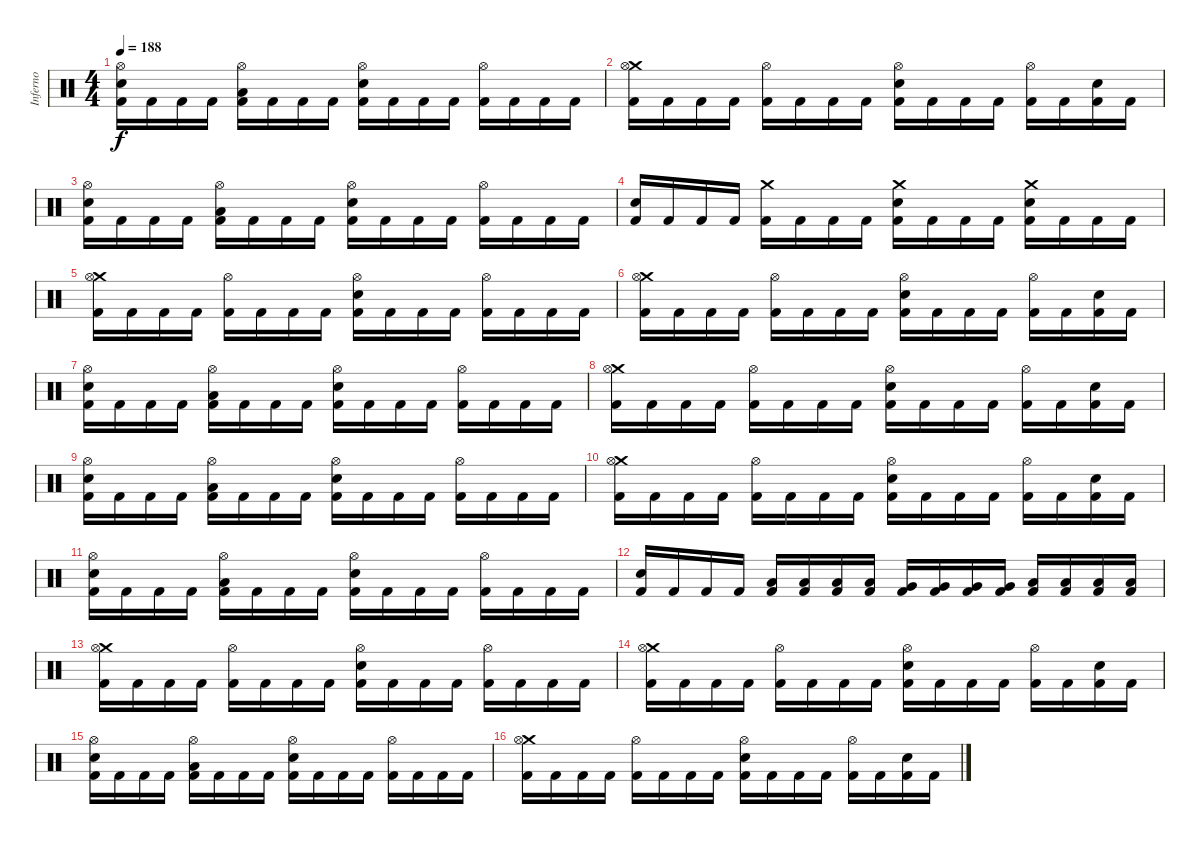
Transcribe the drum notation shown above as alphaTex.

\track ("Inferno" "Inferno") {instrument percussion}
\staff {score}
\articulation defaults
\ts (4 4)
\tempo 188
\clef neutral
\ks c
("Hi-Hat (open)" "Snare (hit) 2" "Kick (hit) 2").16{dy f} "Kick (hit) 2".16 "Kick (hit) 2".16 "Kick (hit) 2".16 ("Hi-Hat (open)" "Low Floor Tom (hit)" "Kick (hit) 2").16 "Kick (hit) 2".16 "Kick (hit) 2".16 "Kick (hit) 2".16 ("Hi-Hat (open)" "Snare (hit) 2" "Kick (hit) 2").16 "Kick (hit) 2".16 "Kick (hit) 2".16 "Kick (hit) 2".16 ("Hi-Hat (open)" "Kick (hit) 2").16 "Kick (hit) 2".16 "Kick (hit) 2".16 "Kick (hit) 2".16 |
("Crash medium (hit)" "Hi-Hat (open)" "Kick (hit) 2").16 "Kick (hit) 2".16 "Kick (hit) 2".16 "Kick (hit) 2".16 ("Hi-Hat (open)" "Kick (hit) 2").16 "Kick (hit) 2".16 "Kick (hit) 2".16 "Kick (hit) 2".16 ("Hi-Hat (open)" "Snare (hit) 2" "Kick (hit) 2").16 "Kick (hit) 2".16 "Kick (hit) 2".16 "Kick (hit) 2".16 ("Hi-Hat (open)" "Kick (hit) 2").16 "Kick (hit) 2".16 ("Snare (hit) 2" "Kick (hit) 2").16 "Kick (hit) 2".16 |
("Hi-Hat (open)" "Snare (hit) 2" "Kick (hit) 2").16 "Kick (hit) 2".16 "Kick (hit) 2".16 "Kick (hit) 2".16 ("Hi-Hat (open)" "Low Floor Tom (hit)" "Kick (hit) 2").16 "Kick (hit) 2".16 "Kick (hit) 2".16 "Kick (hit) 2".16 ("Hi-Hat (open)" "Snare (hit) 2" "Kick (hit) 2").16 "Kick (hit) 2".16 "Kick (hit) 2".16 "Kick (hit) 2".16 ("Hi-Hat (open)" "Kick (hit) 2").16 "Kick (hit) 2".16 "Kick (hit) 2".16 "Kick (hit) 2".16 |
("Snare (hit) 2" "Kick (hit) 2").16 "Kick (hit) 2".16 "Kick (hit) 2".16 "Kick (hit) 2".16 ("Crash medium (hit)" "Kick (hit) 2").16 "Kick (hit) 2".16 "Kick (hit) 2".16 "Kick (hit) 2".16 ("Crash medium (hit)" "Snare (hit) 2" "Kick (hit) 2").16 "Kick (hit) 2".16 "Kick (hit) 2".16 "Kick (hit) 2".16 ("Crash medium (hit)" "Snare (hit) 2" "Kick (hit) 2").16 "Kick (hit) 2".16 "Kick (hit) 2".16 "Kick (hit) 2".16 |
("Crash medium (hit)" "Hi-Hat (open)" "Kick (hit) 2").16 "Kick (hit) 2".16 "Kick (hit) 2".16 "Kick (hit) 2".16 ("Hi-Hat (open)" "Kick (hit) 2").16 "Kick (hit) 2".16 "Kick (hit) 2".16 "Kick (hit) 2".16 ("Hi-Hat (open)" "Snare (hit) 2" "Kick (hit) 2").16 "Kick (hit) 2".16 "Kick (hit) 2".16 "Kick (hit) 2".16 ("Hi-Hat (open)" "Kick (hit) 2").16 "Kick (hit) 2".16 "Kick (hit) 2".16 "Kick (hit) 2".16 |
("Crash medium (hit)" "Hi-Hat (open)" "Kick (hit) 2").16 "Kick (hit) 2".16 "Kick (hit) 2".16 "Kick (hit) 2".16 ("Hi-Hat (open)" "Kick (hit) 2").16 "Kick (hit) 2".16 "Kick (hit) 2".16 "Kick (hit) 2".16 ("Hi-Hat (open)" "Snare (hit) 2" "Kick (hit) 2").16 "Kick (hit) 2".16 "Kick (hit) 2".16 "Kick (hit) 2".16 ("Hi-Hat (open)" "Kick (hit) 2").16 "Kick (hit) 2".16 ("Snare (hit) 2" "Kick (hit) 2").16 "Kick (hit) 2".16 |
("Hi-Hat (open)" "Snare (hit) 2" "Kick (hit) 2").16 "Kick (hit) 2".16 "Kick (hit) 2".16 "Kick (hit) 2".16 ("Hi-Hat (open)" "Low Floor Tom (hit)" "Kick (hit) 2").16 "Kick (hit) 2".16 "Kick (hit) 2".16 "Kick (hit) 2".16 ("Hi-Hat (open)" "Snare (hit) 2" "Kick (hit) 2").16 "Kick (hit) 2".16 "Kick (hit) 2".16 "Kick (hit) 2".16 ("Hi-Hat (open)" "Kick (hit) 2").16 "Kick (hit) 2".16 "Kick (hit) 2".16 "Kick (hit) 2".16 |
("Crash medium (hit)" "Hi-Hat (open)" "Kick (hit) 2").16 "Kick (hit) 2".16 "Kick (hit) 2".16 "Kick (hit) 2".16 ("Hi-Hat (open)" "Kick (hit) 2").16 "Kick (hit) 2".16 "Kick (hit) 2".16 "Kick (hit) 2".16 ("Hi-Hat (open)" "Snare (hit) 2" "Kick (hit) 2").16 "Kick (hit) 2".16 "Kick (hit) 2".16 "Kick (hit) 2".16 ("Hi-Hat (open)" "Kick (hit) 2").16 "Kick (hit) 2".16 ("Snare (hit) 2" "Kick (hit) 2").16 "Kick (hit) 2".16 |
("Hi-Hat (open)" "Snare (hit) 2" "Kick (hit) 2").16 "Kick (hit) 2".16 "Kick (hit) 2".16 "Kick (hit) 2".16 ("Hi-Hat (open)" "Low Floor Tom (hit)" "Kick (hit) 2").16 "Kick (hit) 2".16 "Kick (hit) 2".16 "Kick (hit) 2".16 ("Hi-Hat (open)" "Snare (hit) 2" "Kick (hit) 2").16 "Kick (hit) 2".16 "Kick (hit) 2".16 "Kick (hit) 2".16 ("Hi-Hat (open)" "Kick (hit) 2").16 "Kick (hit) 2".16 "Kick (hit) 2".16 "Kick (hit) 2".16 |
("Crash medium (hit)" "Hi-Hat (open)" "Kick (hit) 2").16 "Kick (hit) 2".16 "Kick (hit) 2".16 "Kick (hit) 2".16 ("Hi-Hat (open)" "Kick (hit) 2").16 "Kick (hit) 2".16 "Kick (hit) 2".16 "Kick (hit) 2".16 ("Hi-Hat (open)" "Snare (hit) 2" "Kick (hit) 2").16 "Kick (hit) 2".16 "Kick (hit) 2".16 "Kick (hit) 2".16 ("Hi-Hat (open)" "Kick (hit) 2").16 "Kick (hit) 2".16 ("Snare (hit) 2" "Kick (hit) 2").16 "Kick (hit) 2".16 |
("Hi-Hat (open)" "Snare (hit) 2" "Kick (hit) 2").16 "Kick (hit) 2".16 "Kick (hit) 2".16 "Kick (hit) 2".16 ("Hi-Hat (open)" "Low Floor Tom (hit)" "Kick (hit) 2").16 "Kick (hit) 2".16 "Kick (hit) 2".16 "Kick (hit) 2".16 ("Hi-Hat (open)" "Snare (hit) 2" "Kick (hit) 2").16 "Kick (hit) 2".16 "Kick (hit) 2".16 "Kick (hit) 2".16 ("Hi-Hat (open)" "Kick (hit) 2").16 "Kick (hit) 2".16 "Kick (hit) 2".16 "Kick (hit) 2".16 |
("Snare (hit) 2" "Kick (hit) 2").16 "Kick (hit) 2".16 "Kick (hit) 2".16 "Kick (hit) 2".16 ("Low Tom (hit)" "Kick (hit) 2").16 ("Low Tom (hit)" "Kick (hit) 2").16 ("Low Tom (hit)" "Kick (hit) 2").16 ("Low Tom (hit)" "Kick (hit) 2").16 ("Very Low Tom (hit)" "Kick (hit) 2").16 ("Very Low Tom (hit)" "Kick (hit) 2").16 ("Very Low Tom (hit)" "Kick (hit) 2").16 ("Very Low Tom (hit)" "Kick (hit) 2").16 ("Low Floor Tom (hit)" "Kick (hit) 2").16 ("Low Floor Tom (hit)" "Kick (hit) 2").16 ("Low Floor Tom (hit)" "Kick (hit) 2").16 ("Low Floor Tom (hit)" "Kick (hit) 2").16 |
("Crash medium (hit)" "Hi-Hat (open)" "Kick (hit) 2").16 "Kick (hit) 2".16 "Kick (hit) 2".16 "Kick (hit) 2".16 ("Hi-Hat (open)" "Kick (hit) 2").16 "Kick (hit) 2".16 "Kick (hit) 2".16 "Kick (hit) 2".16 ("Hi-Hat (open)" "Snare (hit) 2" "Kick (hit) 2").16 "Kick (hit) 2".16 "Kick (hit) 2".16 "Kick (hit) 2".16 ("Hi-Hat (open)" "Kick (hit) 2").16 "Kick (hit) 2".16 "Kick (hit) 2".16 "Kick (hit) 2".16 |
("Crash medium (hit)" "Hi-Hat (open)" "Kick (hit) 2").16 "Kick (hit) 2".16 "Kick (hit) 2".16 "Kick (hit) 2".16 ("Hi-Hat (open)" "Kick (hit) 2").16 "Kick (hit) 2".16 "Kick (hit) 2".16 "Kick (hit) 2".16 ("Hi-Hat (open)" "Snare (hit) 2" "Kick (hit) 2").16 "Kick (hit) 2".16 "Kick (hit) 2".16 "Kick (hit) 2".16 ("Hi-Hat (open)" "Kick (hit) 2").16 "Kick (hit) 2".16 ("Snare (hit) 2" "Kick (hit) 2").16 "Kick (hit) 2".16 |
("Hi-Hat (open)" "Snare (hit) 2" "Kick (hit) 2").16 "Kick (hit) 2".16 "Kick (hit) 2".16 "Kick (hit) 2".16 ("Hi-Hat (open)" "Low Floor Tom (hit)" "Kick (hit) 2").16 "Kick (hit) 2".16 "Kick (hit) 2".16 "Kick (hit) 2".16 ("Hi-Hat (open)" "Snare (hit) 2" "Kick (hit) 2").16 "Kick (hit) 2".16 "Kick (hit) 2".16 "Kick (hit) 2".16 ("Hi-Hat (open)" "Kick (hit) 2").16 "Kick (hit) 2".16 "Kick (hit) 2".16 "Kick (hit) 2".16 |
("Crash medium (hit)" "Hi-Hat (open)" "Kick (hit) 2").16 "Kick (hit) 2".16 "Kick (hit) 2".16 "Kick (hit) 2".16 ("Hi-Hat (open)" "Kick (hit) 2").16 "Kick (hit) 2".16 "Kick (hit) 2".16 "Kick (hit) 2".16 ("Hi-Hat (open)" "Snare (hit) 2" "Kick (hit) 2").16 "Kick (hit) 2".16 "Kick (hit) 2".16 "Kick (hit) 2".16 ("Hi-Hat (open)" "Kick (hit) 2").16 "Kick (hit) 2".16 ("Snare (hit) 2" "Kick (hit) 2").16 "Kick (hit) 2".16
